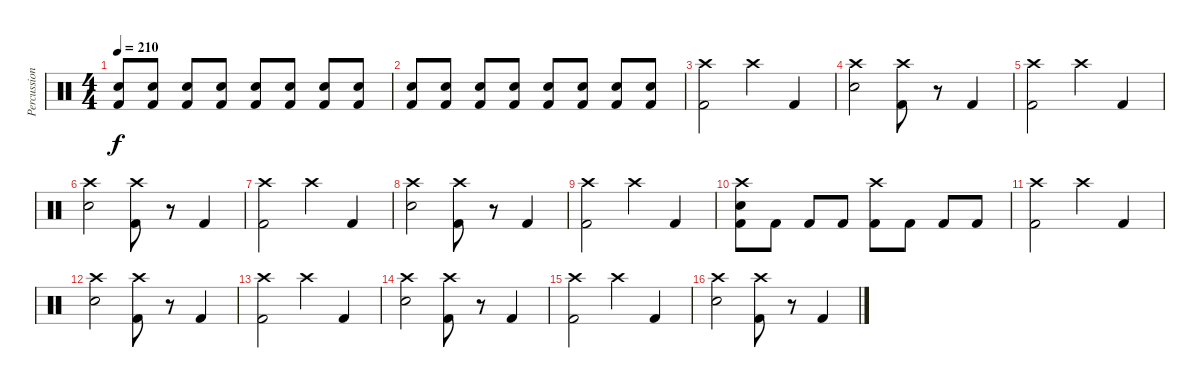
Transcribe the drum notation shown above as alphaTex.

\track ("Percussion" "Percussion") {instrument percussion}
\staff {score}
\articulation defaults
\ts (4 4)
\tempo 210
\clef neutral
\ks c
("Electric Snare (hit)" "Kick (hit) 2").8{dy f} ("Electric Snare (hit)" "Kick (hit) 2").8 ("Electric Snare (hit)" "Kick (hit) 2").8 ("Electric Snare (hit)" "Kick (hit) 2").8 ("Electric Snare (hit)" "Kick (hit) 2").8 ("Electric Snare (hit)" "Kick (hit) 2").8 ("Electric Snare (hit)" "Kick (hit) 2").8 ("Electric Snare (hit)" "Kick (hit) 2").8 |
("Electric Snare (hit)" "Kick (hit) 2").8 ("Electric Snare (hit)" "Kick (hit) 2").8 ("Electric Snare (hit)" "Kick (hit) 2").8 ("Electric Snare (hit)" "Kick (hit) 2").8 ("Electric Snare (hit)" "Kick (hit) 2").8 ("Electric Snare (hit)" "Kick (hit) 2").8 ("Electric Snare (hit)" "Kick (hit) 2").8 ("Electric Snare (hit)" "Kick (hit) 2").8 |
("Crash high (hit)" "Kick (hit) 2").2 "Crash high (hit)".4 "Kick (hit) 2".4 |
("Crash high (hit)" "Electric Snare (hit)").2 ("Crash high (hit)" "Kick (hit) 2").8 r.8 "Kick (hit) 2".4 |
("Crash high (hit)" "Kick (hit) 2").2 "Crash high (hit)".4 "Kick (hit) 2".4 |
("Crash high (hit)" "Electric Snare (hit)").2 ("Crash high (hit)" "Kick (hit) 2").8 r.8 "Kick (hit) 2".4 |
("Crash high (hit)" "Kick (hit) 2").2 "Crash high (hit)".4 "Kick (hit) 2".4 |
("Crash high (hit)" "Electric Snare (hit)").2 ("Crash high (hit)" "Kick (hit) 2").8 r.8 "Kick (hit) 2".4 |
("Crash high (hit)" "Kick (hit) 2").2 "Crash high (hit)".4 "Kick (hit) 2".4 |
("Crash high (hit)" "Electric Snare (hit)" "Kick (hit) 2").8 "Kick (hit) 2".8 "Kick (hit) 2".8 "Kick (hit) 2".8 ("Crash high (hit)" "Kick (hit) 2").8 "Kick (hit) 2".8 "Kick (hit) 2".8 "Kick (hit) 2".8 |
("Crash high (hit)" "Kick (hit) 2").2 "Crash high (hit)".4 "Kick (hit) 2".4 |
("Crash high (hit)" "Electric Snare (hit)").2 ("Crash high (hit)" "Kick (hit) 2").8 r.8 "Kick (hit) 2".4 |
("Crash high (hit)" "Kick (hit) 2").2 "Crash high (hit)".4 "Kick (hit) 2".4 |
("Crash high (hit)" "Electric Snare (hit)").2 ("Crash high (hit)" "Kick (hit) 2").8 r.8 "Kick (hit) 2".4 |
("Crash high (hit)" "Kick (hit) 2").2 "Crash high (hit)".4 "Kick (hit) 2".4 |
("Crash high (hit)" "Electric Snare (hit)").2 ("Crash high (hit)" "Kick (hit) 2").8 r.8 "Kick (hit) 2".4
